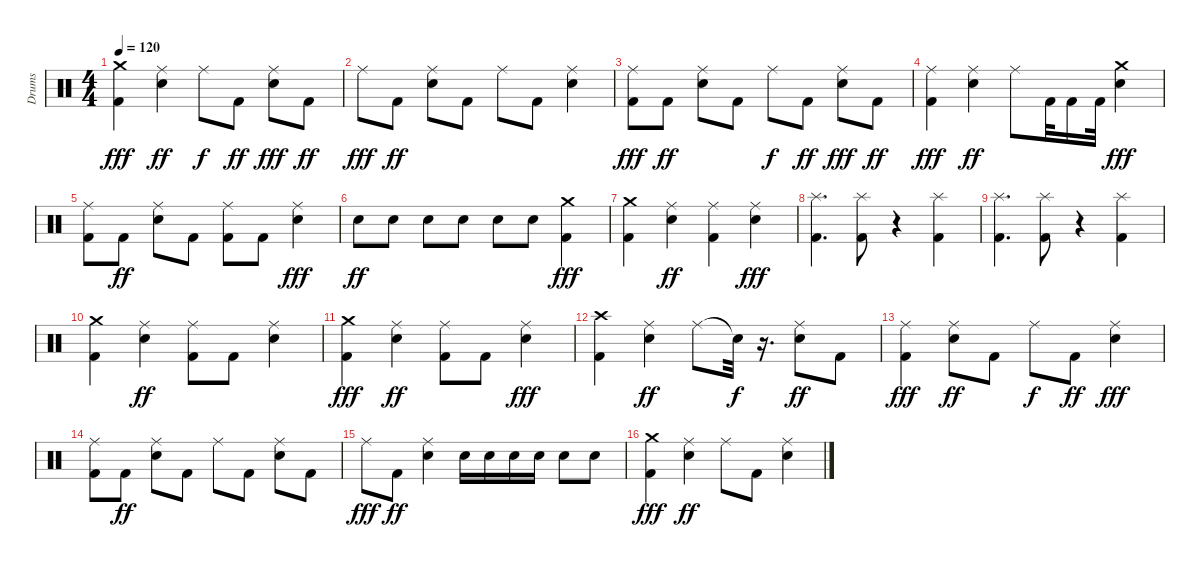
\track ("Drums" "Drums") {instrument percussion}
\staff {score}
\articulation defaults
\ts (4 4)
\tempo 120
\clef neutral
\ks c
("Kick (hit) 2" "Crash medium (hit)").4{dy fff} ("Electric Snare (hit)" "Ride (middle)").4{dy ff} "Ride (middle)".8{dy f} "Kick (hit) 2".8{dy ff} ("Electric Snare (hit)" "Ride (middle)").8{dy fff} "Kick (hit) 2".8{dy ff} |
"Ride (middle)".8{dy fff} "Kick (hit) 2".8{dy ff} ("Electric Snare (hit)" "Ride (middle)").8 "Kick (hit) 2".8 "Ride (middle)".8 "Kick (hit) 2".8 ("Electric Snare (hit)" "Ride (middle)").4 |
("Kick (hit) 2" "Ride (middle)").8{dy fff} "Kick (hit) 2".8{dy ff} ("Electric Snare (hit)" "Ride (middle)").8 "Kick (hit) 2".8 "Ride (middle)".8{dy f} "Kick (hit) 2".8{dy ff} ("Electric Snare (hit)" "Ride (middle)").8{dy fff} "Kick (hit) 2".8{dy ff} |
("Kick (hit) 2" "Ride (middle)").4{dy fff} ("Electric Snare (hit)" "Ride (middle)").4{dy ff} "Ride (middle)".8 "Kick (hit) 2".32 "Kick (hit) 2".16 "Kick (hit) 2".32 ("Electric Snare (hit)" "Crash medium (hit)").4{dy fff} |
("Kick (hit) 2" "Ride (middle)").8 "Kick (hit) 2".8{dy ff} ("Electric Snare (hit)" "Ride (middle)").8 "Kick (hit) 2".8 ("Kick (hit) 2" "Ride (middle)").8 "Kick (hit) 2".8 ("Electric Snare (hit)" "Ride (middle)").4{dy fff} |
"Electric Snare (hit)".8{dy ff} "Electric Snare (hit)".8 "Electric Snare (hit)".8 "Electric Snare (hit)".8 "Electric Snare (hit)".8 "Electric Snare (hit)".8 ("Kick (hit) 2" "Crash medium (hit)").4{dy fff} |
("Kick (hit) 2" "Crash medium (hit)").4 ("Electric Snare (hit)" "Ride (middle)").4{dy ff} ("Kick (hit) 2" "Ride (middle)").4 ("Electric Snare (hit)" "Ride (middle)").4{dy fff} |
("Kick (hit) 2" "Splash (hit)").4{d} ("Kick (hit) 2" "Splash (hit)").8 r.4 ("Kick (hit) 2" "Splash (hit)").4 |
("Kick (hit) 2" "Splash (hit)").4{d} ("Kick (hit) 2" "Splash (hit)").8 r.4 ("Kick (hit) 2" "Splash (hit)").4 |
("Kick (hit) 2" "Crash medium (hit)").4 ("Electric Snare (hit)" "Ride (middle)").4{dy ff} ("Kick (hit) 2" "Ride (middle)").8 "Kick (hit) 2".8 ("Electric Snare (hit)" "Ride (middle)").4 |
("Kick (hit) 2" "Crash medium (hit)").4{dy fff} ("Electric Snare (hit)" "Ride (middle)").4{dy ff} ("Kick (hit) 2" "Ride (middle)").8 "Kick (hit) 2".8 ("Electric Snare (hit)" "Ride (middle)").4{dy fff} |
("Kick (hit) 2" "Crash high (hit)").4 ("Electric Snare (hit)" "Ride (middle)").4{dy ff} "Ride (middle)".8 "Snare (hit)"{t}.32{dy f} r.16{d} ("Electric Snare (hit)" "Ride (middle)").8{dy ff} "Kick (hit) 2".8 |
("Kick (hit) 2" "Ride (middle)").4{dy fff} ("Electric Snare (hit)" "Ride (middle)").8{dy ff} "Kick (hit) 2".8 "Ride (middle)".8{dy f} "Kick (hit) 2".8{dy ff} ("Electric Snare (hit)" "Ride (middle)").4{dy fff} |
("Kick (hit) 2" "Ride (middle)").8 "Kick (hit) 2".8{dy ff} ("Electric Snare (hit)" "Ride (middle)").8 "Kick (hit) 2".8 "Ride (middle)".8 "Kick (hit) 2".8 ("Electric Snare (hit)" "Ride (middle)").8 "Kick (hit) 2".8 |
"Ride (middle)".8{dy fff} "Kick (hit) 2".8{dy ff} ("Electric Snare (hit)" "Ride (middle)").4 "Electric Snare (hit)".16 "Electric Snare (hit)".16 "Electric Snare (hit)".16 "Electric Snare (hit)".16 "Electric Snare (hit)".8 "Electric Snare (hit)".8 |
("Kick (hit) 2" "Crash medium (hit)").4{dy fff} ("Electric Snare (hit)" "Ride (middle)").4{dy ff} "Ride (middle)".8 "Kick (hit) 2".8 ("Electric Snare (hit)" "Ride (middle)").4
